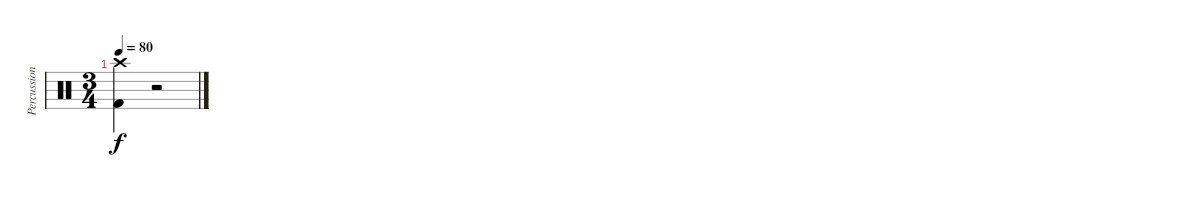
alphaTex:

\track ("Percussion" "Percussion") {instrument percussion}
\staff {score}
\articulation defaults
\ts (3 4)
\tempo 80
\clef neutral
\ks c
("Crash high (hit)" "Kick (hit) 2").4{dy f} r.2
